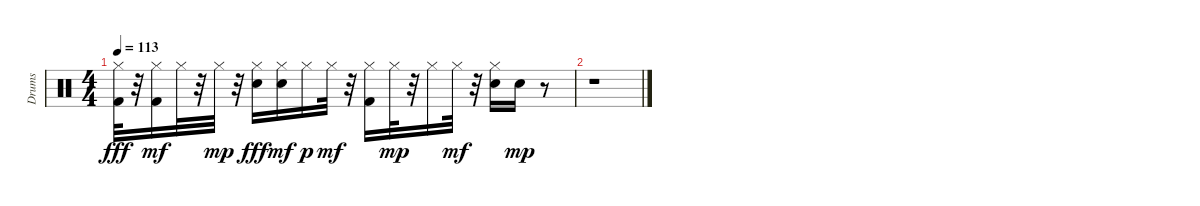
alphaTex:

\track ("Drums" "Drums") {instrument percussion}
\staff {score}
\articulation defaults
\ts (4 4)
\tempo 113
\clef neutral
\ks c
("Kick (hit) 2" "Hi-Hat (closed)").32{dy fff} r.32 ("Kick (hit) 2" "Hi-Hat (closed)").16{dy mf} "Hi-Hat (closed)".32 r.32 "Hi-Hat (closed)".32{dy mp} r.32 ("Electric Snare (hit)" "Hi-Hat (closed)").16{dy fff} ("Electric Snare (hit)" "Hi-Hat (closed)").16{dy mf} "Hi-Hat (closed)".16{dy p} "Hi-Hat (closed)".32{dy mf} r.32 ("Kick (hit) 2" "Hi-Hat (closed)").16 "Hi-Hat (closed)".32{dy mp} r.32 "Hi-Hat (closed)".16 "Hi-Hat (closed)".32{dy mf} r.32 ("Electric Snare (hit)" "Hi-Hat (closed)").16 "Electric Snare (hit)".16{dy mp} r.8 |
r.1
